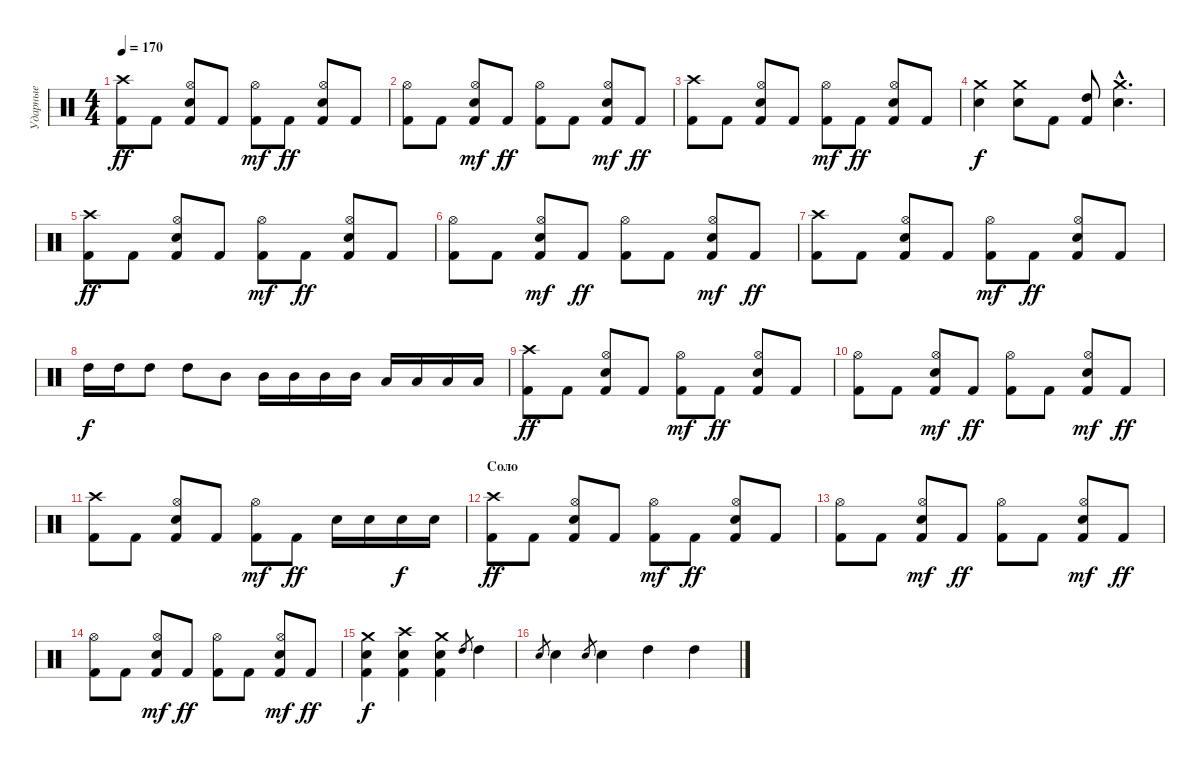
\track ("Ударные" "Ударные") {instrument percussion}
\staff {score}
\articulation defaults
\ts (4 4)
\tempo 170
\clef neutral
\ks c
("Crash high (hit)" "Kick (hit) 2").8{dy ff} "Kick (hit) 2".8 ("Hi-Hat (open)" "Kick (hit) 2" "Electric Snare (hit)").8 "Kick (hit) 2".8 ("Kick (hit) 2" "Hi-Hat (open)").8{dy mf} "Kick (hit) 2".8{dy ff} ("Kick (hit) 2" "Hi-Hat (open)" "Electric Snare (hit)").8 "Kick (hit) 2".8 |
("Hi-Hat (open)" "Kick (hit) 2").8 "Kick (hit) 2".8 ("Kick (hit) 2" "Electric Snare (hit)" "Hi-Hat (open)").8{dy mf} "Kick (hit) 2".8{dy ff} ("Hi-Hat (open)" "Kick (hit) 2").8 "Kick (hit) 2".8 ("Kick (hit) 2" "Electric Snare (hit)" "Hi-Hat (open)").8{dy mf} "Kick (hit) 2".8{dy ff} |
("Crash high (hit)" "Kick (hit) 2").8 "Kick (hit) 2".8 ("Hi-Hat (open)" "Kick (hit) 2" "Electric Snare (hit)").8 "Kick (hit) 2".8 ("Kick (hit) 2" "Hi-Hat (open)").8{dy mf} "Kick (hit) 2".8{dy ff} ("Kick (hit) 2" "Hi-Hat (open)" "Electric Snare (hit)").8 "Kick (hit) 2".8 |
("Electric Snare (hit)" "Crash medium (hit)").4{dy f} ("Electric Snare (hit)" "Crash medium (hit)").8 "Kick (hit) 2".8 ("High Tom (hit)" "Kick (hit) 2").8 ("Electric Snare (hit)"{hac} "Crash medium (hit)"{hac}).4{d} |
("Crash high (hit)" "Kick (hit) 2").8{dy ff} "Kick (hit) 2".8 ("Hi-Hat (open)" "Kick (hit) 2" "Electric Snare (hit)").8 "Kick (hit) 2".8 ("Kick (hit) 2" "Hi-Hat (open)").8{dy mf} "Kick (hit) 2".8{dy ff} ("Kick (hit) 2" "Hi-Hat (open)" "Electric Snare (hit)").8 "Kick (hit) 2".8 |
("Hi-Hat (open)" "Kick (hit) 2").8 "Kick (hit) 2".8 ("Kick (hit) 2" "Electric Snare (hit)" "Hi-Hat (open)").8{dy mf} "Kick (hit) 2".8{dy ff} ("Hi-Hat (open)" "Kick (hit) 2").8 "Kick (hit) 2".8 ("Kick (hit) 2" "Electric Snare (hit)" "Hi-Hat (open)").8{dy mf} "Kick (hit) 2".8{dy ff} |
("Crash high (hit)" "Kick (hit) 2").8 "Kick (hit) 2".8 ("Hi-Hat (open)" "Kick (hit) 2" "Electric Snare (hit)").8 "Kick (hit) 2".8 ("Kick (hit) 2" "Hi-Hat (open)").8{dy mf} "Kick (hit) 2".8{dy ff} ("Kick (hit) 2" "Hi-Hat (open)" "Electric Snare (hit)").8 "Kick (hit) 2".8 |
"High Tom (hit)".16{dy f} "High Tom (hit)".16 "High Tom (hit)".8 "High Tom (hit)".8 "Mid Tom (hit)".8 "Mid Tom (hit)".16 "Mid Tom (hit)".16 "Mid Tom (hit)".16 "Mid Tom (hit)".16 "Low Tom (hit)".16 "Low Tom (hit)".16 "Low Tom (hit)".16 "Low Tom (hit)".16 |
("Crash high (hit)" "Kick (hit) 2").8{dy ff} "Kick (hit) 2".8 ("Hi-Hat (open)" "Kick (hit) 2" "Electric Snare (hit)").8 "Kick (hit) 2".8 ("Kick (hit) 2" "Hi-Hat (open)").8{dy mf} "Kick (hit) 2".8{dy ff} ("Kick (hit) 2" "Hi-Hat (open)" "Electric Snare (hit)").8 "Kick (hit) 2".8 |
("Hi-Hat (open)" "Kick (hit) 2").8 "Kick (hit) 2".8 ("Kick (hit) 2" "Electric Snare (hit)" "Hi-Hat (open)").8{dy mf} "Kick (hit) 2".8{dy ff} ("Hi-Hat (open)" "Kick (hit) 2").8 "Kick (hit) 2".8 ("Kick (hit) 2" "Electric Snare (hit)" "Hi-Hat (open)").8{dy mf} "Kick (hit) 2".8{dy ff} |
("Crash high (hit)" "Kick (hit) 2").8 "Kick (hit) 2".8 ("Hi-Hat (open)" "Kick (hit) 2" "Electric Snare (hit)").8 "Kick (hit) 2".8 ("Kick (hit) 2" "Hi-Hat (open)").8{dy mf} "Kick (hit) 2".8{dy ff} "Electric Snare (hit)".16 "Electric Snare (hit)".16 "Electric Snare (hit)".16{dy f} "Electric Snare (hit)".16 |
\section ("" "Соло")
("Crash high (hit)" "Kick (hit) 2").8{dy ff} "Kick (hit) 2".8 ("Hi-Hat (open)" "Kick (hit) 2" "Electric Snare (hit)").8 "Kick (hit) 2".8 ("Kick (hit) 2" "Hi-Hat (open)").8{dy mf} "Kick (hit) 2".8{dy ff} ("Kick (hit) 2" "Hi-Hat (open)" "Electric Snare (hit)").8 "Kick (hit) 2".8 |
("Hi-Hat (open)" "Kick (hit) 2").8 "Kick (hit) 2".8 ("Kick (hit) 2" "Electric Snare (hit)" "Hi-Hat (open)").8{dy mf} "Kick (hit) 2".8{dy ff} ("Hi-Hat (open)" "Kick (hit) 2").8 "Kick (hit) 2".8 ("Kick (hit) 2" "Electric Snare (hit)" "Hi-Hat (open)").8{dy mf} "Kick (hit) 2".8{dy ff} |
("Hi-Hat (open)" "Kick (hit) 2").8 "Kick (hit) 2".8 ("Kick (hit) 2" "Electric Snare (hit)" "Hi-Hat (open)").8{dy mf} "Kick (hit) 2".8{dy ff} ("Hi-Hat (open)" "Kick (hit) 2").8 "Kick (hit) 2".8 ("Kick (hit) 2" "Electric Snare (hit)" "Hi-Hat (open)").8{dy mf} "Kick (hit) 2".8{dy ff} |
("Crash medium (hit)" "Kick (hit) 2" "Electric Snare (hit)").4{dy f} ("Crash high (hit)" "Kick (hit) 2" "Electric Snare (hit)").4 ("Crash medium (hit)" "Electric Snare (hit)" "Kick (hit) 2").4 "High Tom (hit)".8{gr} "High Tom (hit)".4 |
"Electric Snare (hit)".8{gr} "Electric Snare (hit)".4 "Electric Snare (hit)".8{gr} "Electric Snare (hit)".4 "High Tom (hit)".4 "High Tom (hit)".4
